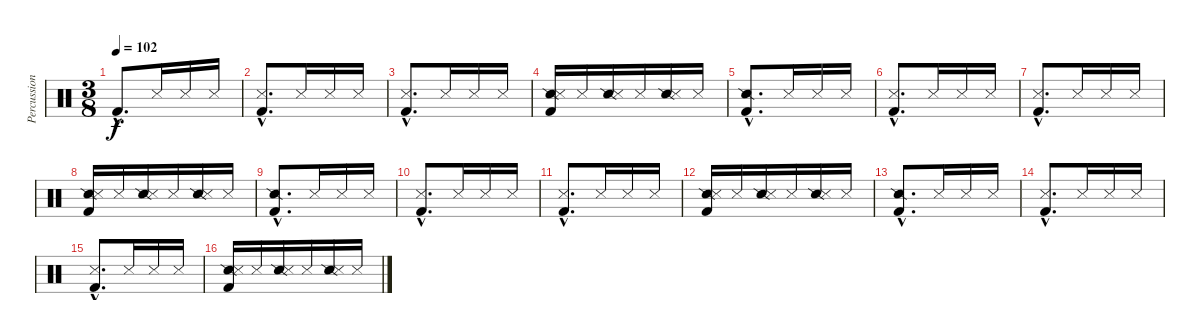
\track ("Percussions" "Percussion") {instrument percussion}
\staff {score}
\articulation defaults
\ts (3 8)
\tempo 102
\clef neutral
\ks c "Kick (hit) 2"{hac}.8{d dy f} "Snare (side stick) 3".16 "Snare (side stick) 3".16 "Snare (side stick) 3".16
|
("Snare (side stick) 3"{hac} "Kick (hit) 2"{hac}).8{d} "Snare (side stick) 3".16 "Snare (side stick) 3".16 "Snare (side stick) 3".16 |
("Snare (side stick) 3"{hac} "Kick (hit) 2"{hac}).8{d} "Snare (side stick) 3".16 "Snare (side stick) 3".16 "Snare (side stick) 3".16 |
("Snare (side stick) 2" "Snare (side stick) 3" "Kick (hit) 2").16 "Snare (side stick) 3".16 ("Snare (side stick) 2" "Snare (side stick) 3").16 "Snare (side stick) 3".16 ("Snare (side stick) 2" "Snare (side stick) 3").16 "Snare (side stick) 3".16 |
("Snare (side stick) 2"{hac} "Kick (hit) 2"{hac}).8{d} "Snare (side stick) 3".16 "Snare (side stick) 3".16 "Snare (side stick) 3".16 |
("Snare (side stick) 3"{hac} "Kick (hit) 2"{hac}).8{d} "Snare (side stick) 3".16 "Snare (side stick) 3".16 "Snare (side stick) 3".16 |
("Snare (side stick) 3"{hac} "Kick (hit) 2"{hac}).8{d} "Snare (side stick) 3".16 "Snare (side stick) 3".16 "Snare (side stick) 3".16 |
("Snare (side stick) 2" "Snare (side stick) 3" "Kick (hit) 2").16 "Snare (side stick) 3".16 ("Snare (side stick) 2" "Snare (side stick) 3").16 "Snare (side stick) 3".16 ("Snare (side stick) 2" "Snare (side stick) 3").16 "Snare (side stick) 3".16 |
("Snare (side stick) 2"{hac} "Kick (hit) 2"{hac}).8{d} "Snare (side stick) 3".16 "Snare (side stick) 3".16 "Snare (side stick) 3".16 |
("Snare (side stick) 3"{hac} "Kick (hit) 2"{hac}).8{d} "Snare (side stick) 3".16 "Snare (side stick) 3".16 "Snare (side stick) 3".16 |
("Snare (side stick) 3"{hac} "Kick (hit) 2"{hac}).8{d} "Snare (side stick) 3".16 "Snare (side stick) 3".16 "Snare (side stick) 3".16 |
("Snare (side stick) 2" "Snare (side stick) 3" "Kick (hit) 2").16 "Snare (side stick) 3".16 ("Snare (side stick) 2" "Snare (side stick) 3").16 "Snare (side stick) 3".16 ("Snare (side stick) 2" "Snare (side stick) 3").16 "Snare (side stick) 3".16 |
("Snare (side stick) 2"{hac} "Kick (hit) 2"{hac}).8{d} "Snare (side stick) 3".16 "Snare (side stick) 3".16 "Snare (side stick) 3".16 |
("Snare (side stick) 3"{hac} "Kick (hit) 2"{hac}).8{d} "Snare (side stick) 3".16 "Snare (side stick) 3".16 "Snare (side stick) 3".16 |
("Snare (side stick) 3"{hac} "Kick (hit) 2"{hac}).8{d} "Snare (side stick) 3".16 "Snare (side stick) 3".16 "Snare (side stick) 3".16 |
("Snare (side stick) 2" "Snare (side stick) 3" "Kick (hit) 2").16 "Snare (side stick) 3".16 ("Snare (side stick) 2" "Snare (side stick) 3").16 "Snare (side stick) 3".16 ("Snare (side stick) 2" "Snare (side stick) 3").16 "Snare (side stick) 3".16
